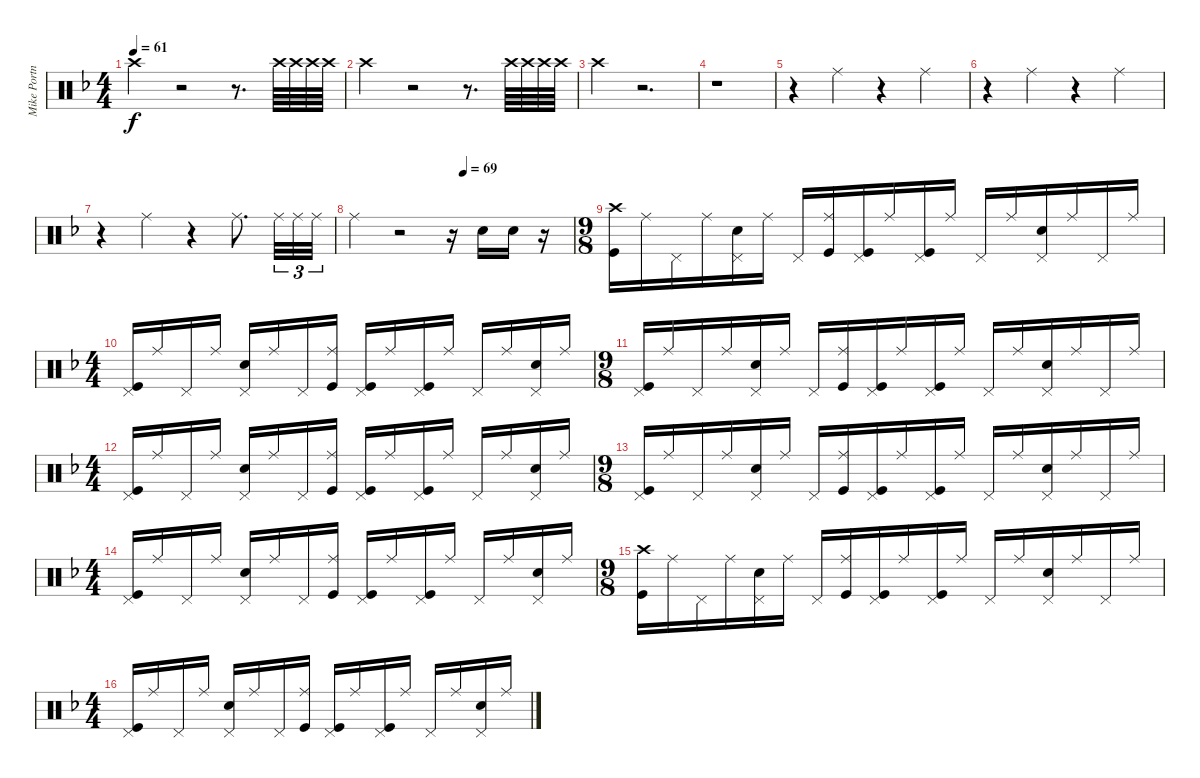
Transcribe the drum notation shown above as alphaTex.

\track ("Mike Portnoy - Drums" "Mike Portn") {instrument percussion}
\staff {score}
\articulation defaults
\ts (4 4)
\tempo 61
\clef neutral
\ks dminor "Crash high (hit)".4{dy f}
r.2 r.8{d} "Crash high (hit)".64 "Crash high (hit)".64 "Crash high (hit)".64 "Crash high (hit)".64 |
"Crash high (hit)".4 r.2 r.8{d} "Crash high (hit)".64 "Crash high (hit)".64 "Crash high (hit)".64 "Crash high (hit)".64 |
"Crash high (hit)".4 r.2{d} |
r.1 |
r.4 "Ride (middle)".4 r.4 "Ride (middle)".4 |
r.4 "Ride (middle)".4 r.4 "Ride (middle)".4 |
r.4 "Ride (middle)".4 r.4 "Ride (middle)".8{d} "Ride (middle)".32{tu (3 2)} "Ride (middle)".32{tu (3 2)} "Ride (middle)".32{tu (3 2)} |
\tempo (69 0.5)
"Ride (middle)".4 r.2 r.16 "Snare (hit) 2".16 "Snare (hit) 2".16 r.16 |
\ts (9 8)
("Crash high (hit)" "Kick (hit)").16 "Ride (middle)".16 "Pedal Hi-Hat (hit)".16 "Ride (middle)".16 ("Pedal Hi-Hat (hit)" "Snare (hit) 2").16 "Ride (middle)".16 "Pedal Hi-Hat (hit)".16 ("Ride (middle)" "Kick (hit)").16 ("Pedal Hi-Hat (hit)" "Kick (hit)").16 "Ride (middle)".16 ("Pedal Hi-Hat (hit)" "Kick (hit)").16 "Ride (middle)".16 "Pedal Hi-Hat (hit)".16 "Ride (middle)".16 ("Pedal Hi-Hat (hit)" "Snare (hit) 2").16 "Ride (middle)".16 "Pedal Hi-Hat (hit)".16 "Ride (middle)".16 |
\ts (4 4)
("Pedal Hi-Hat (hit)" "Kick (hit)").16 "Ride (middle)".16 "Pedal Hi-Hat (hit)".16 "Ride (middle)".16 ("Pedal Hi-Hat (hit)" "Snare (hit) 2").16 "Ride (middle)".16 "Pedal Hi-Hat (hit)".16 ("Ride (middle)" "Kick (hit)").16 ("Pedal Hi-Hat (hit)" "Kick (hit)").16 "Ride (middle)".16 ("Pedal Hi-Hat (hit)" "Kick (hit)").16 "Ride (middle)".16 "Pedal Hi-Hat (hit)".16 "Ride (middle)".16 ("Pedal Hi-Hat (hit)" "Snare (hit) 2").16 "Ride (middle)".16 |
\ts (9 8)
("Pedal Hi-Hat (hit)" "Kick (hit)").16 "Ride (middle)".16 "Pedal Hi-Hat (hit)".16 "Ride (middle)".16 ("Pedal Hi-Hat (hit)" "Snare (hit) 2").16 "Ride (middle)".16 "Pedal Hi-Hat (hit)".16 ("Ride (middle)" "Kick (hit)").16 ("Pedal Hi-Hat (hit)" "Kick (hit)").16 "Ride (middle)".16 ("Pedal Hi-Hat (hit)" "Kick (hit)").16 "Ride (middle)".16 "Pedal Hi-Hat (hit)".16 "Ride (middle)".16 ("Pedal Hi-Hat (hit)" "Snare (hit) 2").16 "Ride (middle)".16 "Pedal Hi-Hat (hit)".16 "Ride (middle)".16 |
\ts (4 4)
("Pedal Hi-Hat (hit)" "Kick (hit)").16 "Ride (middle)".16 "Pedal Hi-Hat (hit)".16 "Ride (middle)".16 ("Pedal Hi-Hat (hit)" "Snare (hit) 2").16 "Ride (middle)".16 "Pedal Hi-Hat (hit)".16 ("Ride (middle)" "Kick (hit)").16 ("Pedal Hi-Hat (hit)" "Kick (hit)").16 "Ride (middle)".16 ("Pedal Hi-Hat (hit)" "Kick (hit)").16 "Ride (middle)".16 "Pedal Hi-Hat (hit)".16 "Ride (middle)".16 ("Pedal Hi-Hat (hit)" "Snare (hit) 2").16 "Ride (middle)".16 |
\ts (9 8)
("Pedal Hi-Hat (hit)" "Kick (hit)").16 "Ride (middle)".16 "Pedal Hi-Hat (hit)".16 "Ride (middle)".16 ("Pedal Hi-Hat (hit)" "Snare (hit) 2").16 "Ride (middle)".16 "Pedal Hi-Hat (hit)".16 ("Ride (middle)" "Kick (hit)").16 ("Pedal Hi-Hat (hit)" "Kick (hit)").16 "Ride (middle)".16 ("Pedal Hi-Hat (hit)" "Kick (hit)").16 "Ride (middle)".16 "Pedal Hi-Hat (hit)".16 "Ride (middle)".16 ("Pedal Hi-Hat (hit)" "Snare (hit) 2").16 "Ride (middle)".16 "Pedal Hi-Hat (hit)".16 "Ride (middle)".16 |
\ts (4 4)
("Pedal Hi-Hat (hit)" "Kick (hit)").16 "Ride (middle)".16 "Pedal Hi-Hat (hit)".16 "Ride (middle)".16 ("Pedal Hi-Hat (hit)" "Snare (hit) 2").16 "Ride (middle)".16 "Pedal Hi-Hat (hit)".16 ("Ride (middle)" "Kick (hit)").16 ("Pedal Hi-Hat (hit)" "Kick (hit)").16 "Ride (middle)".16 ("Pedal Hi-Hat (hit)" "Kick (hit)").16 "Ride (middle)".16 "Pedal Hi-Hat (hit)".16 "Ride (middle)".16 ("Pedal Hi-Hat (hit)" "Snare (hit) 2").16 "Ride (middle)".16 |
\ts (9 8)
("Crash high (hit)" "Kick (hit)").16 "Ride (middle)".16 "Pedal Hi-Hat (hit)".16 "Ride (middle)".16 ("Pedal Hi-Hat (hit)" "Snare (hit) 2").16 "Ride (middle)".16 "Pedal Hi-Hat (hit)".16 ("Ride (middle)" "Kick (hit)").16 ("Pedal Hi-Hat (hit)" "Kick (hit)").16 "Ride (middle)".16 ("Pedal Hi-Hat (hit)" "Kick (hit)").16 "Ride (middle)".16 "Pedal Hi-Hat (hit)".16 "Ride (middle)".16 ("Pedal Hi-Hat (hit)" "Snare (hit) 2").16 "Ride (middle)".16 "Pedal Hi-Hat (hit)".16 "Ride (middle)".16 |
\ts (4 4)
("Pedal Hi-Hat (hit)" "Kick (hit)").16 "Ride (middle)".16 "Pedal Hi-Hat (hit)".16 "Ride (middle)".16 ("Pedal Hi-Hat (hit)" "Snare (hit) 2").16 "Ride (middle)".16 "Pedal Hi-Hat (hit)".16 ("Ride (middle)" "Kick (hit)").16 ("Pedal Hi-Hat (hit)" "Kick (hit)").16 "Ride (middle)".16 ("Pedal Hi-Hat (hit)" "Kick (hit)").16 "Ride (middle)".16 "Pedal Hi-Hat (hit)".16 "Ride (middle)".16 ("Pedal Hi-Hat (hit)" "Snare (hit) 2").16 "Ride (middle)".16
